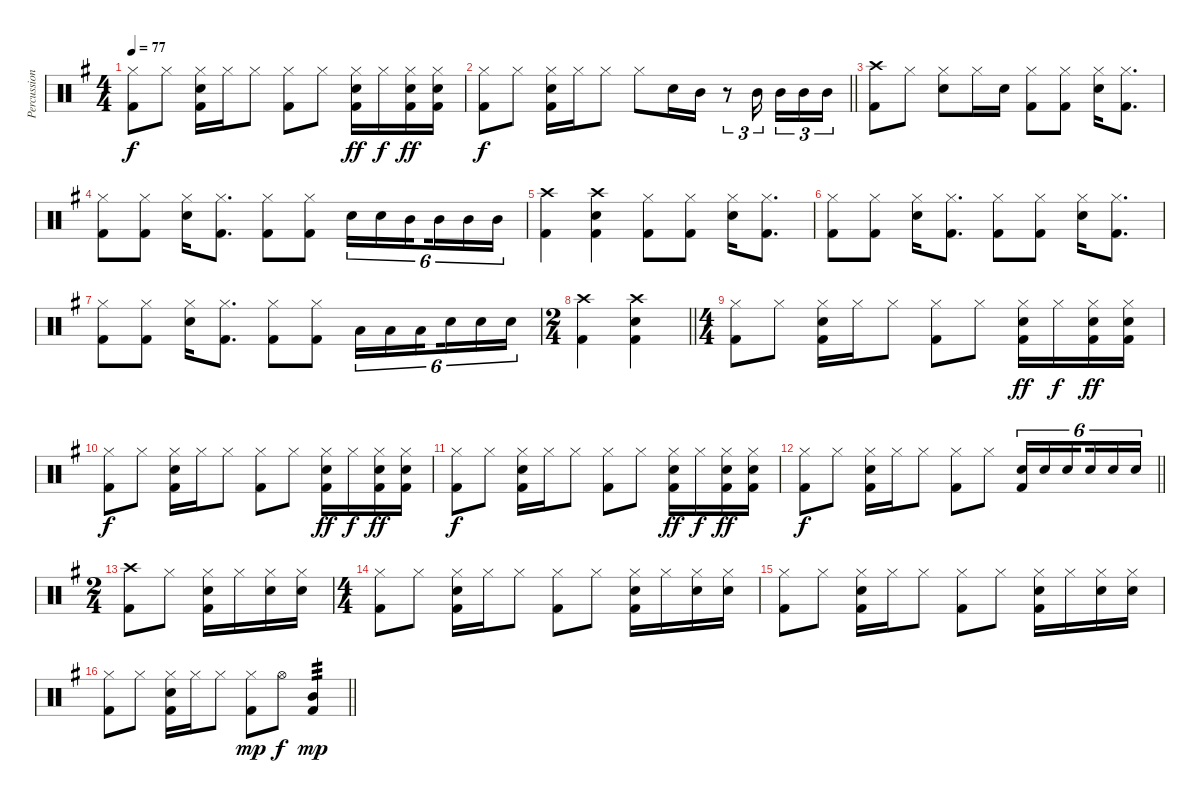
\track ("Percussion" "Percussion") {instrument percussion}
\staff {score}
\articulation defaults
\ts (4 4)
\tempo 77
\clef neutral
\ks g
("Hi-Hat (closed)" "Kick (hit) 2").8{dy f} "Hi-Hat (closed)".8 ("Hi-Hat (closed)" "Snare (hit) 2" "Kick (hit) 2").16 "Hi-Hat (closed)".16 "Hi-Hat (closed)".8 ("Hi-Hat (closed)" "Kick (hit) 2").8 "Hi-Hat (closed)".8 ("Hi-Hat (closed)" "Snare (hit) 2" "Kick (hit) 2").16{dy ff} "Hi-Hat (closed)".16{dy f} ("Hi-Hat (closed)" "Snare (hit) 2" "Kick (hit) 2").16{dy ff} ("Hi-Hat (closed)" "Snare (hit) 2" "Kick (hit) 2").16 |
\barLineRight lightlight
("Hi-Hat (closed)" "Kick (hit) 2").8{dy f} "Hi-Hat (closed)".8 ("Hi-Hat (closed)" "Snare (hit) 2" "Kick (hit) 2").16 "Hi-Hat (closed)".16 "Hi-Hat (closed)".8 "Hi-Hat (closed)".8 "Snare (hit) 2".16 "Mid Tom (hit)".16 r.8{tu (3 2)} "Mid Tom (hit)".16{tu (3 2) beam splitsecondary} "Mid Tom (hit)".16{tu (3 2)} "Mid Tom (hit)".16{tu (3 2)} "Mid Tom (hit)".16{tu (3 2)} |
("Crash high (hit)" "Kick (hit) 2").8 "Hi-Hat (closed)".8 ("Hi-Hat (closed)" "Snare (hit) 2").8 "Hi-Hat (closed)".16 "Snare (hit) 2".16 ("Hi-Hat (closed)" "Kick (hit) 2").8 ("Hi-Hat (closed)" "Kick (hit) 2").8 ("Hi-Hat (closed)" "Snare (hit) 2").16 ("Hi-Hat (closed)" "Kick (hit) 2").8{d} |
("Hi-Hat (closed)" "Kick (hit) 2").8 ("Hi-Hat (closed)" "Kick (hit) 2").8 ("Hi-Hat (closed)" "Snare (hit) 2").16 ("Hi-Hat (closed)" "Kick (hit) 2").8{d} ("Hi-Hat (closed)" "Kick (hit) 2").8 ("Hi-Hat (closed)" "Kick (hit) 2").8 "Snare (hit) 2".16{tu (6 4)} "Snare (hit) 2".16{tu (6 4)} "Mid Tom (hit)".16{tu (6 4) beam splitsecondary} "Mid Tom (hit)".16{tu (6 4)} "Mid Tom (hit)".16{tu (6 4)} "Mid Tom (hit)".16{tu (6 4)} |
("Crash high (hit)" "Kick (hit) 2").4 ("Crash high (hit)" "Kick (hit) 2" "Snare (hit) 2").4 ("Hi-Hat (closed)" "Kick (hit) 2").8 ("Hi-Hat (closed)" "Kick (hit) 2").8 ("Hi-Hat (closed)" "Snare (hit) 2").16 ("Hi-Hat (closed)" "Kick (hit) 2").8{d} |
("Hi-Hat (closed)" "Kick (hit) 2").8 ("Hi-Hat (closed)" "Kick (hit) 2").8 ("Hi-Hat (closed)" "Snare (hit) 2").16 ("Hi-Hat (closed)" "Kick (hit) 2").8{d} ("Hi-Hat (closed)" "Kick (hit) 2").8 ("Hi-Hat (closed)" "Kick (hit) 2").8 ("Hi-Hat (closed)" "Snare (hit) 2").16 ("Hi-Hat (closed)" "Kick (hit) 2").8{d} |
("Hi-Hat (closed)" "Kick (hit) 2").8 ("Hi-Hat (closed)" "Kick (hit) 2").8 ("Hi-Hat (closed)" "Snare (hit) 2").16 ("Hi-Hat (closed)" "Kick (hit) 2").8{d} ("Hi-Hat (closed)" "Kick (hit) 2").8 ("Hi-Hat (closed)" "Kick (hit) 2").8 "Low Floor Tom (hit)".16{tu (6 4)} "Low Floor Tom (hit)".16{tu (6 4)} "Low Floor Tom (hit)".16{tu (6 4) beam splitsecondary} "Snare (hit) 2".16{tu (6 4)} "Snare (hit) 2".16{tu (6 4)} "Snare (hit) 2".16{tu (6 4)} |
\ts (2 4)
\barLineRight lightlight
("Crash high (hit)" "Kick (hit) 2").4 ("Crash high (hit)" "Kick (hit) 2" "Snare (hit) 2").4 |
\ts (4 4)
("Hi-Hat (closed)" "Kick (hit) 2").8 "Hi-Hat (closed)".8 ("Hi-Hat (closed)" "Snare (hit) 2" "Kick (hit) 2").16 "Hi-Hat (closed)".16 "Hi-Hat (closed)".8 ("Hi-Hat (closed)" "Kick (hit) 2").8 "Hi-Hat (closed)".8 ("Hi-Hat (closed)" "Snare (hit) 2" "Kick (hit) 2").16{dy ff} "Hi-Hat (closed)".16{dy f} ("Hi-Hat (closed)" "Snare (hit) 2" "Kick (hit) 2").16{dy ff} ("Hi-Hat (closed)" "Snare (hit) 2" "Kick (hit) 2").16 |
("Hi-Hat (closed)" "Kick (hit) 2").8{dy f} "Hi-Hat (closed)".8 ("Hi-Hat (closed)" "Snare (hit) 2" "Kick (hit) 2").16 "Hi-Hat (closed)".16 "Hi-Hat (closed)".8 ("Hi-Hat (closed)" "Kick (hit) 2").8 "Hi-Hat (closed)".8 ("Hi-Hat (closed)" "Snare (hit) 2" "Kick (hit) 2").16{dy ff} "Hi-Hat (closed)".16{dy f} ("Hi-Hat (closed)" "Snare (hit) 2" "Kick (hit) 2").16{dy ff} ("Hi-Hat (closed)" "Snare (hit) 2" "Kick (hit) 2").16 |
("Hi-Hat (closed)" "Kick (hit) 2").8{dy f} "Hi-Hat (closed)".8 ("Hi-Hat (closed)" "Snare (hit) 2" "Kick (hit) 2").16 "Hi-Hat (closed)".16 "Hi-Hat (closed)".8 ("Hi-Hat (closed)" "Kick (hit) 2").8 "Hi-Hat (closed)".8 ("Hi-Hat (closed)" "Snare (hit) 2" "Kick (hit) 2").16{dy ff} "Hi-Hat (closed)".16{dy f} ("Hi-Hat (closed)" "Snare (hit) 2" "Kick (hit) 2").16{dy ff} ("Hi-Hat (closed)" "Snare (hit) 2" "Kick (hit) 2").16 |
\barLineRight lightlight
("Hi-Hat (closed)" "Kick (hit) 2").8{dy f} "Hi-Hat (closed)".8 ("Hi-Hat (closed)" "Snare (hit) 2" "Kick (hit) 2").16 "Hi-Hat (closed)".16 "Hi-Hat (closed)".8 ("Hi-Hat (closed)" "Kick (hit) 2").8 "Hi-Hat (closed)".8 ("Snare (hit) 2" "Kick (hit) 2").16{tu (6 4)} "Snare (hit) 2".16{tu (6 4)} "Snare (hit) 2".16{tu (6 4) beam splitsecondary} "Snare (hit) 2".16{tu (6 4)} "Snare (hit) 2".16{tu (6 4)} "Snare (hit) 2".16{tu (6 4)} |
\ts (2 4)
("Crash high (hit)" "Kick (hit) 2").8 "Hi-Hat (closed)".8 ("Hi-Hat (closed)" "Kick (hit) 2" "Snare (hit) 2").16 "Hi-Hat (closed)".16 ("Hi-Hat (closed)" "Snare (hit) 2").16 ("Hi-Hat (closed)" "Snare (hit) 2").16 |
\ts (4 4)
("Hi-Hat (closed)" "Kick (hit) 2").8 "Hi-Hat (closed)".8 ("Hi-Hat (closed)" "Snare (hit) 2" "Kick (hit) 2").16 "Hi-Hat (closed)".16 "Hi-Hat (closed)".8 ("Hi-Hat (closed)" "Kick (hit) 2").8 "Hi-Hat (closed)".8 ("Hi-Hat (closed)" "Snare (hit) 2" "Kick (hit) 2").16 "Hi-Hat (closed)".16 ("Hi-Hat (closed)" "Snare (hit) 2").16 ("Hi-Hat (closed)" "Snare (hit) 2").16 |
("Hi-Hat (closed)" "Kick (hit) 2").8 "Hi-Hat (closed)".8 ("Hi-Hat (closed)" "Snare (hit) 2" "Kick (hit) 2").16 "Hi-Hat (closed)".16 "Hi-Hat (closed)".8 ("Hi-Hat (closed)" "Kick (hit) 2").8 "Hi-Hat (closed)".8 ("Hi-Hat (closed)" "Snare (hit) 2" "Kick (hit) 2").16 "Hi-Hat (closed)".16 ("Hi-Hat (closed)" "Snare (hit) 2").16 ("Hi-Hat (closed)" "Snare (hit) 2").16 |
\barLineRight lightlight
("Hi-Hat (closed)" "Kick (hit) 2").8 "Hi-Hat (closed)".8 ("Hi-Hat (closed)" "Snare (hit) 2" "Kick (hit) 2").16 "Hi-Hat (closed)".16 "Hi-Hat (closed)".8 ("Hi-Hat (closed)" "Kick (hit) 2").8{dy mp} "Hi-Hat (open)".8{dy f} ("Mid Tom (hit)" "Kick (hit) 2").4{tp 3 dy mp}
